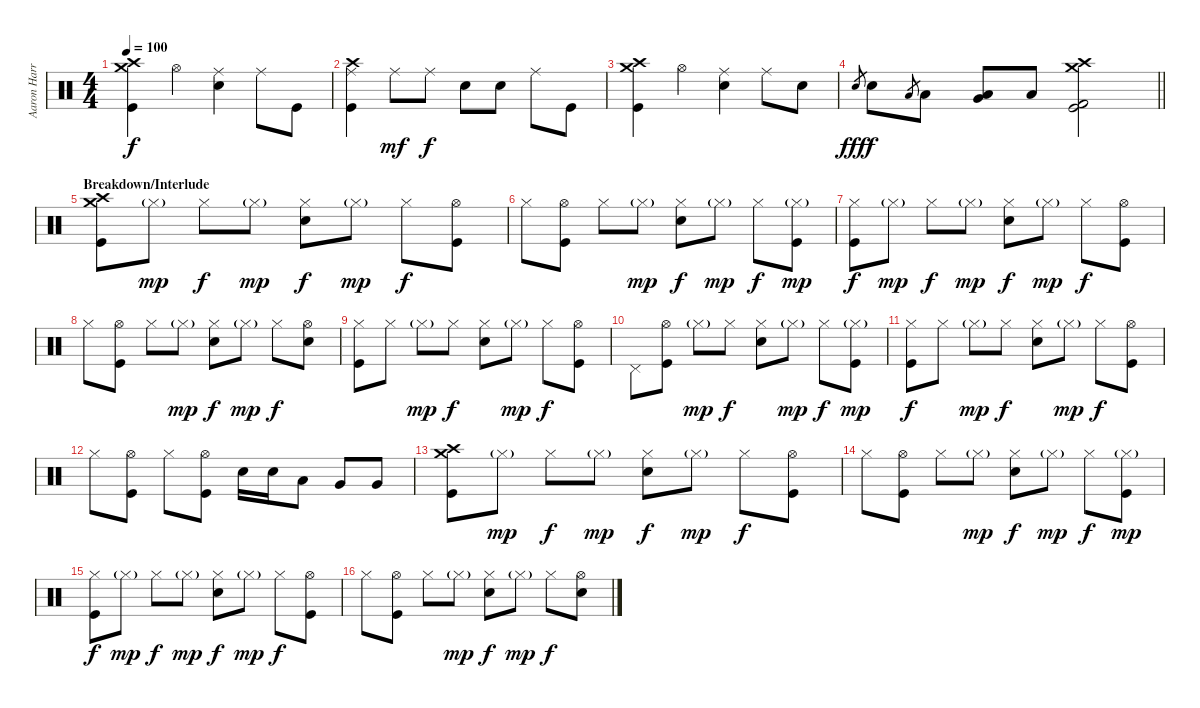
\track ("Aaron Harris" "Aaron Harr") {instrument percussion}
\staff {score}
\articulation defaults
\ts (4 4)
\tempo 100
\clef neutral
\ks c
("Crash medium (hit)" "Crash high (hit)" "Kick (hit)").4{dy f} "Hi-Hat (open)".4 ("Ride (middle)" "Electric Snare (hit)").4 "Ride (middle)".8 "Kick (hit)".8 |
("Crash high (hit)" "Ride (middle)" "Kick (hit)").4 "Ride (middle)".8{dy mf} "Ride (middle)".8{dy f} "Electric Snare (hit)".8 "Electric Snare (hit)".8 "Ride (middle)".8 "Kick (hit)".8 |
("Crash medium (hit)" "Crash high (hit)" "Kick (hit)").4 "Hi-Hat (open)".4 ("Ride (middle)" "Electric Snare (hit)").4 "Ride (middle)".8 "Electric Snare (hit)".8 |
\barLineRight lightlight "Electric Snare (hit)".8{gr dy fff} "Electric Snare (hit)".8{dy f} "Low Tom (hit)".8{gr} "Low Tom (hit)".8
("Very Low Tom (hit)" "Low Floor Tom (hit)").8 "Low Floor Tom (hit)".8 ("Crash medium (hit)" "Crash high (hit)" "Kick (hit) 2" "Kick (hit)").2 |
\section ("" "Breakdown/Interlude")
("Crash medium (hit)" "Crash high (hit)" "Kick (hit)").8 "Hi-Hat (closed)"{g}.8{dy mp} "Hi-Hat (closed)".8{dy f} "Hi-Hat (closed)"{g}.8{dy mp} ("Hi-Hat (closed)" "Electric Snare (hit)").8{dy f} "Hi-Hat (closed)"{g}.8{dy mp} "Hi-Hat (closed)".8{dy f} ("Hi-Hat (open)" "Kick (hit)").8 |
"Hi-Hat (closed)".8 ("Hi-Hat (open)" "Kick (hit)").8 "Hi-Hat (closed)".8 "Hi-Hat (closed)"{g}.8{dy mp} ("Hi-Hat (closed)" "Electric Snare (hit)").8{dy f} "Hi-Hat (closed)"{g}.8{dy mp} "Hi-Hat (closed)".8{dy f} ("Hi-Hat (closed)"{g} "Kick (hit)").8{dy mp} |
("Hi-Hat (closed)" "Kick (hit)").8{dy f} "Hi-Hat (closed)"{g}.8{dy mp} "Hi-Hat (closed)".8{dy f} "Hi-Hat (closed)"{g}.8{dy mp} ("Hi-Hat (closed)" "Electric Snare (hit)").8{dy f} "Hi-Hat (closed)"{g}.8{dy mp} "Hi-Hat (closed)".8{dy f} ("Hi-Hat (open)" "Kick (hit)").8 |
"Hi-Hat (closed)".8 ("Hi-Hat (open)" "Kick (hit)").8 "Hi-Hat (closed)".8 "Hi-Hat (closed)"{g}.8{dy mp} ("Hi-Hat (closed)" "Electric Snare (hit)").8{dy f} "Hi-Hat (closed)"{g}.8{dy mp} "Hi-Hat (closed)".8{dy f} ("Hi-Hat (open)" "Electric Snare (hit)").8 |
("Hi-Hat (closed)" "Kick (hit)").8 "Hi-Hat (closed)".8 "Hi-Hat (closed)"{g}.8{dy mp} "Hi-Hat (closed)".8{dy f} ("Hi-Hat (closed)" "Electric Snare (hit)").8 "Hi-Hat (closed)"{g}.8{dy mp} "Hi-Hat (closed)".8{dy f} ("Hi-Hat (open)" "Kick (hit)").8 |
"Pedal Hi-Hat (hit)".8 ("Hi-Hat (open)" "Kick (hit)").8 "Hi-Hat (closed)"{g}.8{dy mp} "Hi-Hat (closed)".8{dy f} ("Hi-Hat (closed)" "Electric Snare (hit)").8 "Hi-Hat (closed)"{g}.8{dy mp} "Hi-Hat (closed)".8{dy f} ("Hi-Hat (closed)"{g} "Kick (hit)").8{dy mp} |
("Hi-Hat (closed)" "Kick (hit)").8{dy f} "Hi-Hat (closed)".8 "Hi-Hat (closed)"{g}.8{dy mp} "Hi-Hat (closed)".8{dy f} ("Hi-Hat (closed)" "Electric Snare (hit)").8 "Hi-Hat (closed)"{g}.8{dy mp} "Hi-Hat (closed)".8{dy f} ("Hi-Hat (open)" "Kick (hit)").8 |
"Hi-Hat (closed)".8 ("Hi-Hat (open)" "Kick (hit)").8 "Hi-Hat (closed)".8 ("Hi-Hat (open)" "Kick (hit)").8 "Electric Snare (hit)".16 "Electric Snare (hit)".16 "Low Tom (hit)".8 "Very Low Tom (hit)".8 "Very Low Tom (hit)".8 |
("Crash medium (hit)" "Crash high (hit)" "Kick (hit)").8 "Hi-Hat (closed)"{g}.8{dy mp} "Hi-Hat (closed)".8{dy f} "Hi-Hat (closed)"{g}.8{dy mp} ("Hi-Hat (closed)" "Electric Snare (hit)").8{dy f} "Hi-Hat (closed)"{g}.8{dy mp} "Hi-Hat (closed)".8{dy f} ("Hi-Hat (open)" "Kick (hit)").8 |
"Hi-Hat (closed)".8 ("Hi-Hat (open)" "Kick (hit)").8 "Hi-Hat (closed)".8 "Hi-Hat (closed)"{g}.8{dy mp} ("Hi-Hat (closed)" "Electric Snare (hit)").8{dy f} "Hi-Hat (closed)"{g}.8{dy mp} "Hi-Hat (closed)".8{dy f} ("Hi-Hat (closed)"{g} "Kick (hit)").8{dy mp} |
("Hi-Hat (closed)" "Kick (hit)").8{dy f} "Hi-Hat (closed)"{g}.8{dy mp} "Hi-Hat (closed)".8{dy f} "Hi-Hat (closed)"{g}.8{dy mp} ("Hi-Hat (closed)" "Electric Snare (hit)").8{dy f} "Hi-Hat (closed)"{g}.8{dy mp} "Hi-Hat (closed)".8{dy f} ("Hi-Hat (open)" "Kick (hit)").8 |
"Hi-Hat (closed)".8 ("Hi-Hat (open)" "Kick (hit)").8 "Hi-Hat (closed)".8 "Hi-Hat (closed)"{g}.8{dy mp} ("Hi-Hat (closed)" "Electric Snare (hit)").8{dy f} "Hi-Hat (closed)"{g}.8{dy mp} "Hi-Hat (closed)".8{dy f} ("Hi-Hat (open)" "Electric Snare (hit)").8
